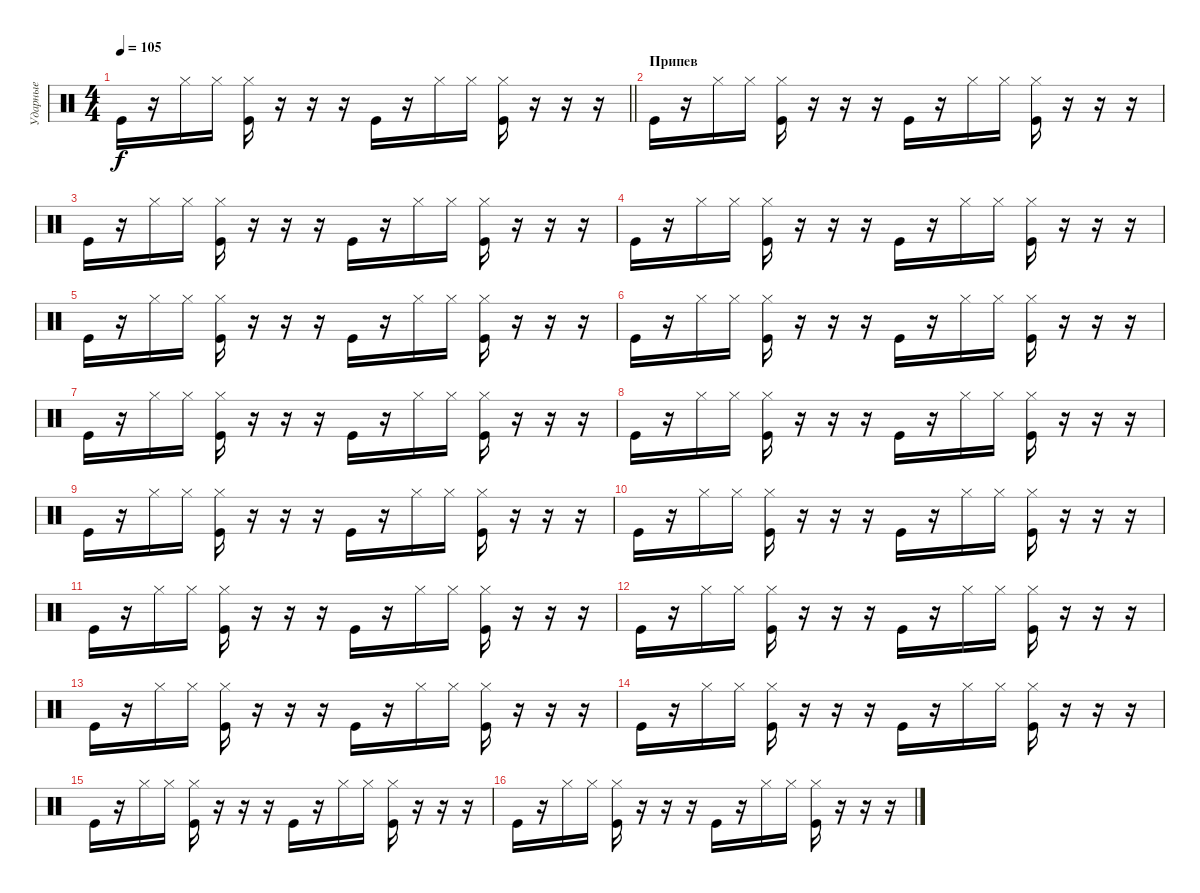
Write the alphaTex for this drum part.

\track ("Ударные" "Ударные") {instrument percussion}
\staff {score}
\articulation defaults
\ts (4 4)
\tempo 105
\clef neutral
\barLineRight lightlight
\ks c "Kick (hit)".16{dy f}
r.16 "Hi-Hat (closed)".16 "Hi-Hat (closed)".16 ("Hi-Hat (closed)" "Kick (hit)").16 r.16 r.16 r.16 "Kick (hit)".16 r.16 "Hi-Hat (closed)".16 "Hi-Hat (closed)".16 ("Hi-Hat (closed)" "Kick (hit)").16 r.16 r.16 r.16 |
\section ("" "Припев")
"Kick (hit)".16 r.16 "Hi-Hat (closed)".16 "Hi-Hat (closed)".16 ("Hi-Hat (closed)" "Kick (hit)").16 r.16 r.16 r.16 "Kick (hit)".16 r.16 "Hi-Hat (closed)".16 "Hi-Hat (closed)".16 ("Hi-Hat (closed)" "Kick (hit)").16 r.16 r.16 r.16 |
"Kick (hit)".16 r.16 "Hi-Hat (closed)".16 "Hi-Hat (closed)".16 ("Hi-Hat (closed)" "Kick (hit)").16 r.16 r.16 r.16 "Kick (hit)".16 r.16 "Hi-Hat (closed)".16 "Hi-Hat (closed)".16 ("Hi-Hat (closed)" "Kick (hit)").16 r.16 r.16 r.16 |
"Kick (hit)".16 r.16 "Hi-Hat (closed)".16 "Hi-Hat (closed)".16 ("Hi-Hat (closed)" "Kick (hit)").16 r.16 r.16 r.16 "Kick (hit)".16 r.16 "Hi-Hat (closed)".16 "Hi-Hat (closed)".16 ("Hi-Hat (closed)" "Kick (hit)").16 r.16 r.16 r.16 |
"Kick (hit)".16 r.16 "Hi-Hat (closed)".16 "Hi-Hat (closed)".16 ("Hi-Hat (closed)" "Kick (hit)").16 r.16 r.16 r.16 "Kick (hit)".16 r.16 "Hi-Hat (closed)".16 "Hi-Hat (closed)".16 ("Hi-Hat (closed)" "Kick (hit)").16 r.16 r.16 r.16 |
"Kick (hit)".16 r.16 "Hi-Hat (closed)".16 "Hi-Hat (closed)".16 ("Hi-Hat (closed)" "Kick (hit)").16 r.16 r.16 r.16 "Kick (hit)".16 r.16 "Hi-Hat (closed)".16 "Hi-Hat (closed)".16 ("Hi-Hat (closed)" "Kick (hit)").16 r.16 r.16 r.16 |
"Kick (hit)".16 r.16 "Hi-Hat (closed)".16 "Hi-Hat (closed)".16 ("Hi-Hat (closed)" "Kick (hit)").16 r.16 r.16 r.16 "Kick (hit)".16 r.16 "Hi-Hat (closed)".16 "Hi-Hat (closed)".16 ("Hi-Hat (closed)" "Kick (hit)").16 r.16 r.16 r.16 |
"Kick (hit)".16 r.16 "Hi-Hat (closed)".16 "Hi-Hat (closed)".16 ("Hi-Hat (closed)" "Kick (hit)").16 r.16 r.16 r.16 "Kick (hit)".16 r.16 "Hi-Hat (closed)".16 "Hi-Hat (closed)".16 ("Hi-Hat (closed)" "Kick (hit)").16 r.16 r.16 r.16 |
"Kick (hit)".16 r.16 "Hi-Hat (closed)".16 "Hi-Hat (closed)".16 ("Hi-Hat (closed)" "Kick (hit)").16 r.16 r.16 r.16 "Kick (hit)".16 r.16 "Hi-Hat (closed)".16 "Hi-Hat (closed)".16 ("Hi-Hat (closed)" "Kick (hit)").16 r.16 r.16 r.16 |
"Kick (hit)".16 r.16 "Hi-Hat (closed)".16 "Hi-Hat (closed)".16 ("Hi-Hat (closed)" "Kick (hit)").16 r.16 r.16 r.16 "Kick (hit)".16 r.16 "Hi-Hat (closed)".16 "Hi-Hat (closed)".16 ("Hi-Hat (closed)" "Kick (hit)").16 r.16 r.16 r.16 |
"Kick (hit)".16 r.16 "Hi-Hat (closed)".16 "Hi-Hat (closed)".16 ("Hi-Hat (closed)" "Kick (hit)").16 r.16 r.16 r.16 "Kick (hit)".16 r.16 "Hi-Hat (closed)".16 "Hi-Hat (closed)".16 ("Hi-Hat (closed)" "Kick (hit)").16 r.16 r.16 r.16 |
"Kick (hit)".16 r.16 "Hi-Hat (closed)".16 "Hi-Hat (closed)".16 ("Hi-Hat (closed)" "Kick (hit)").16 r.16 r.16 r.16 "Kick (hit)".16 r.16 "Hi-Hat (closed)".16 "Hi-Hat (closed)".16 ("Hi-Hat (closed)" "Kick (hit)").16 r.16 r.16 r.16 |
"Kick (hit)".16 r.16 "Hi-Hat (closed)".16 "Hi-Hat (closed)".16 ("Hi-Hat (closed)" "Kick (hit)").16 r.16 r.16 r.16 "Kick (hit)".16 r.16 "Hi-Hat (closed)".16 "Hi-Hat (closed)".16 ("Hi-Hat (closed)" "Kick (hit)").16 r.16 r.16 r.16 |
"Kick (hit)".16 r.16 "Hi-Hat (closed)".16 "Hi-Hat (closed)".16 ("Hi-Hat (closed)" "Kick (hit)").16 r.16 r.16 r.16 "Kick (hit)".16 r.16 "Hi-Hat (closed)".16 "Hi-Hat (closed)".16 ("Hi-Hat (closed)" "Kick (hit)").16 r.16 r.16 r.16 |
"Kick (hit)".16 r.16 "Hi-Hat (closed)".16 "Hi-Hat (closed)".16 ("Hi-Hat (closed)" "Kick (hit)").16 r.16 r.16 r.16 "Kick (hit)".16 r.16 "Hi-Hat (closed)".16 "Hi-Hat (closed)".16 ("Hi-Hat (closed)" "Kick (hit)").16 r.16 r.16 r.16 |
"Kick (hit)".16 r.16 "Hi-Hat (closed)".16 "Hi-Hat (closed)".16 ("Hi-Hat (closed)" "Kick (hit)").16 r.16 r.16 r.16 "Kick (hit)".16 r.16 "Hi-Hat (closed)".16 "Hi-Hat (closed)".16 ("Hi-Hat (closed)" "Kick (hit)").16 r.16 r.16 r.16
